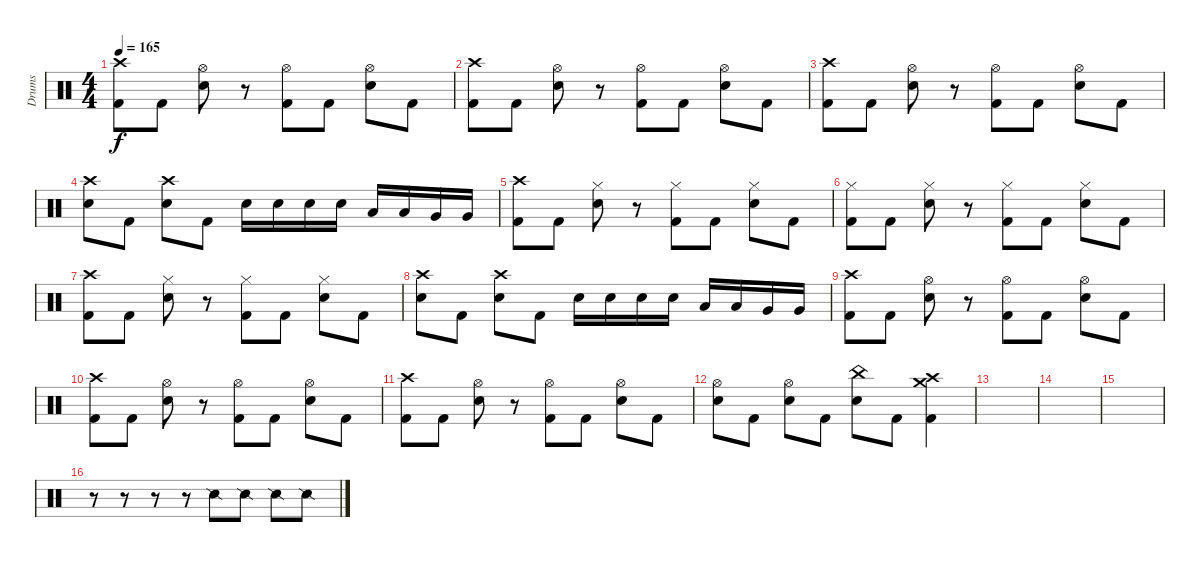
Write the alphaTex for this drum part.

\track ("Drums" "Drums") {instrument percussion}
\staff {score}
\articulation defaults
\ts (4 4)
\tempo 165
\clef neutral
\ks c
("Crash high (hit)" "Kick (hit) 2").8{dy f} "Kick (hit) 2".8 ("Hi-Hat (open)" "Electric Snare (hit)").8 r.8 ("Hi-Hat (open)" "Kick (hit) 2").8 "Kick (hit) 2".8 ("Hi-Hat (open)" "Electric Snare (hit)").8 "Kick (hit) 2".8 |
("Crash high (hit)" "Kick (hit) 2").8 "Kick (hit) 2".8 ("Hi-Hat (open)" "Electric Snare (hit)").8 r.8 ("Hi-Hat (open)" "Kick (hit) 2").8 "Kick (hit) 2".8 ("Hi-Hat (open)" "Electric Snare (hit)").8 "Kick (hit) 2".8 |
("Crash high (hit)" "Kick (hit) 2").8 "Kick (hit) 2".8 ("Hi-Hat (open)" "Electric Snare (hit)").8 r.8 ("Hi-Hat (open)" "Kick (hit) 2").8 "Kick (hit) 2".8 ("Hi-Hat (open)" "Electric Snare (hit)").8 "Kick (hit) 2".8 |
("Crash high (hit)" "Electric Snare (hit)").8 "Kick (hit) 2".8 ("Crash high (hit)" "Electric Snare (hit)").8 "Kick (hit) 2".8 "Electric Snare (hit)".16 "Electric Snare (hit)".16 "Electric Snare (hit)".16 "Electric Snare (hit)".16 "Low Tom (hit)".16 "Low Tom (hit)".16 "Very Low Tom (hit)".16 "Very Low Tom (hit)".16 |
("Crash high (hit)" "Kick (hit) 2").8 "Kick (hit) 2".8 ("Hi-Hat (closed)" "Electric Snare (hit)").8 r.8 ("Hi-Hat (closed)" "Kick (hit) 2").8 "Kick (hit) 2".8 ("Hi-Hat (closed)" "Electric Snare (hit)").8 "Kick (hit) 2".8 |
("Hi-Hat (closed)" "Kick (hit) 2").8 "Kick (hit) 2".8 ("Hi-Hat (closed)" "Electric Snare (hit)").8 r.8 ("Hi-Hat (closed)" "Kick (hit) 2").8 "Kick (hit) 2".8 ("Hi-Hat (closed)" "Electric Snare (hit)").8 "Kick (hit) 2".8 |
("Crash high (hit)" "Kick (hit) 2").8 "Kick (hit) 2".8 ("Hi-Hat (closed)" "Electric Snare (hit)").8 r.8 ("Hi-Hat (closed)" "Kick (hit) 2").8 "Kick (hit) 2".8 ("Hi-Hat (closed)" "Electric Snare (hit)").8 "Kick (hit) 2".8 |
("Crash high (hit)" "Electric Snare (hit)").8 "Kick (hit) 2".8 ("Crash high (hit)" "Electric Snare (hit)").8 "Kick (hit) 2".8 "Electric Snare (hit)".16 "Electric Snare (hit)".16 "Electric Snare (hit)".16 "Electric Snare (hit)".16 "Low Tom (hit)".16 "Low Tom (hit)".16 "Very Low Tom (hit)".16 "Very Low Tom (hit)".16 |
("Crash high (hit)" "Kick (hit) 2").8 "Kick (hit) 2".8 ("Hi-Hat (open)" "Electric Snare (hit)").8 r.8 ("Hi-Hat (open)" "Kick (hit) 2").8 "Kick (hit) 2".8 ("Hi-Hat (open)" "Electric Snare (hit)").8 "Kick (hit) 2".8 |
("Crash high (hit)" "Kick (hit) 2").8 "Kick (hit) 2".8 ("Hi-Hat (open)" "Electric Snare (hit)").8 r.8 ("Hi-Hat (open)" "Kick (hit) 2").8 "Kick (hit) 2".8 ("Hi-Hat (open)" "Electric Snare (hit)").8 "Kick (hit) 2".8 |
("Crash high (hit)" "Kick (hit) 2").8 "Kick (hit) 2".8 ("Hi-Hat (open)" "Electric Snare (hit)").8 r.8 ("Hi-Hat (open)" "Kick (hit) 2").8 "Kick (hit) 2".8 ("Hi-Hat (open)" "Electric Snare (hit)").8 "Kick (hit) 2".8 |
("Hi-Hat (open)" "Electric Snare (hit)").8 "Kick (hit) 2".8 ("Hi-Hat (open)" "Electric Snare (hit)").8 "Kick (hit) 2".8 ("China (hit)" "Electric Snare (hit)").8 "Kick (hit) 2".8 ("Crash high (hit)" "Crash medium (hit)" "Kick (hit) 2").4 |
|
|
|
r.8 r.8 r.8 r.8 "Snare (side stick) 2".8 "Snare (side stick) 2".8 "Snare (side stick) 2".8 "Snare (side stick) 2".8
